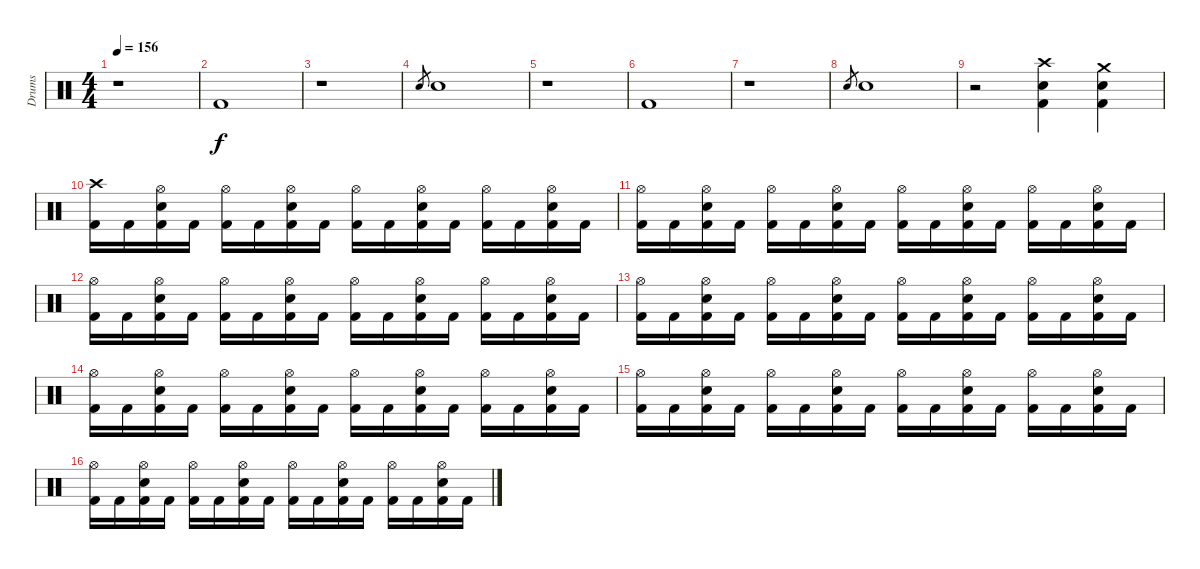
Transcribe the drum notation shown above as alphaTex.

\track ("Drums" "Drums") {instrument percussion}
\staff {score}
\articulation defaults
\ts (4 4)
\tempo 156
\clef neutral
\ks c
r.1{dy f} |
"Kick (hit) 2".1 |
r.1 |
"Snare (hit) 2".8{gr} "Snare (hit) 2".1 |
r.1 |
"Kick (hit) 2".1 |
r.1 |
"Snare (hit) 2".8{gr} "Snare (hit) 2".1 |
r.2 ("Kick (hit) 2" "Snare (hit) 2" "Crash high (hit)").4 ("Kick (hit) 2" "Snare (hit) 2" "Crash medium (hit)").4 |
\section ("" "")
("Kick (hit) 2" "Crash high (hit)").16 "Kick (hit) 2".16 ("Kick (hit) 2" "Snare (hit) 2" "Hi-Hat (open)").16 "Kick (hit) 2".16 ("Kick (hit) 2" "Hi-Hat (open)").16 "Kick (hit) 2".16 ("Kick (hit) 2" "Snare (hit) 2" "Hi-Hat (open)").16 "Kick (hit) 2".16 ("Kick (hit) 2" "Hi-Hat (open)").16 "Kick (hit) 2".16 ("Kick (hit) 2" "Snare (hit) 2" "Hi-Hat (open)").16 "Kick (hit) 2".16 ("Kick (hit) 2" "Hi-Hat (open)").16 "Kick (hit) 2".16 ("Kick (hit) 2" "Snare (hit) 2" "Hi-Hat (open)").16 "Kick (hit) 2".16 |
("Kick (hit) 2" "Hi-Hat (open)").16 "Kick (hit) 2".16 ("Kick (hit) 2" "Snare (hit) 2" "Hi-Hat (open)").16 "Kick (hit) 2".16 ("Kick (hit) 2" "Hi-Hat (open)").16 "Kick (hit) 2".16 ("Kick (hit) 2" "Snare (hit) 2" "Hi-Hat (open)").16 "Kick (hit) 2".16 ("Kick (hit) 2" "Hi-Hat (open)").16 "Kick (hit) 2".16 ("Kick (hit) 2" "Snare (hit) 2" "Hi-Hat (open)").16 "Kick (hit) 2".16 ("Kick (hit) 2" "Hi-Hat (open)").16 "Kick (hit) 2".16 ("Kick (hit) 2" "Snare (hit) 2" "Hi-Hat (open)").16 "Kick (hit) 2".16 |
("Kick (hit) 2" "Hi-Hat (open)").16 "Kick (hit) 2".16 ("Kick (hit) 2" "Snare (hit) 2" "Hi-Hat (open)").16 "Kick (hit) 2".16 ("Kick (hit) 2" "Hi-Hat (open)").16 "Kick (hit) 2".16 ("Kick (hit) 2" "Snare (hit) 2" "Hi-Hat (open)").16 "Kick (hit) 2".16 ("Kick (hit) 2" "Hi-Hat (open)").16 "Kick (hit) 2".16 ("Kick (hit) 2" "Snare (hit) 2" "Hi-Hat (open)").16 "Kick (hit) 2".16 ("Kick (hit) 2" "Hi-Hat (open)").16 "Kick (hit) 2".16 ("Kick (hit) 2" "Snare (hit) 2" "Hi-Hat (open)").16 "Kick (hit) 2".16 |
("Kick (hit) 2" "Hi-Hat (open)").16 "Kick (hit) 2".16 ("Kick (hit) 2" "Snare (hit) 2" "Hi-Hat (open)").16 "Kick (hit) 2".16 ("Kick (hit) 2" "Hi-Hat (open)").16 "Kick (hit) 2".16 ("Kick (hit) 2" "Snare (hit) 2" "Hi-Hat (open)").16 "Kick (hit) 2".16 ("Kick (hit) 2" "Hi-Hat (open)").16 "Kick (hit) 2".16 ("Kick (hit) 2" "Snare (hit) 2" "Hi-Hat (open)").16 "Kick (hit) 2".16 ("Kick (hit) 2" "Hi-Hat (open)").16 "Kick (hit) 2".16 ("Kick (hit) 2" "Snare (hit) 2" "Hi-Hat (open)").16 "Kick (hit) 2".16 |
("Kick (hit) 2" "Hi-Hat (open)").16 "Kick (hit) 2".16 ("Kick (hit) 2" "Snare (hit) 2" "Hi-Hat (open)").16 "Kick (hit) 2".16 ("Kick (hit) 2" "Hi-Hat (open)").16 "Kick (hit) 2".16 ("Kick (hit) 2" "Snare (hit) 2" "Hi-Hat (open)").16 "Kick (hit) 2".16 ("Kick (hit) 2" "Hi-Hat (open)").16 "Kick (hit) 2".16 ("Kick (hit) 2" "Snare (hit) 2" "Hi-Hat (open)").16 "Kick (hit) 2".16 ("Kick (hit) 2" "Hi-Hat (open)").16 "Kick (hit) 2".16 ("Kick (hit) 2" "Snare (hit) 2" "Hi-Hat (open)").16 "Kick (hit) 2".16 |
("Kick (hit) 2" "Hi-Hat (open)").16 "Kick (hit) 2".16 ("Kick (hit) 2" "Snare (hit) 2" "Hi-Hat (open)").16 "Kick (hit) 2".16 ("Kick (hit) 2" "Hi-Hat (open)").16 "Kick (hit) 2".16 ("Kick (hit) 2" "Snare (hit) 2" "Hi-Hat (open)").16 "Kick (hit) 2".16 ("Kick (hit) 2" "Hi-Hat (open)").16 "Kick (hit) 2".16 ("Kick (hit) 2" "Snare (hit) 2" "Hi-Hat (open)").16 "Kick (hit) 2".16 ("Kick (hit) 2" "Hi-Hat (open)").16 "Kick (hit) 2".16 ("Kick (hit) 2" "Snare (hit) 2" "Hi-Hat (open)").16 "Kick (hit) 2".16 |
("Kick (hit) 2" "Hi-Hat (open)").16 "Kick (hit) 2".16 ("Kick (hit) 2" "Snare (hit) 2" "Hi-Hat (open)").16 "Kick (hit) 2".16 ("Kick (hit) 2" "Hi-Hat (open)").16 "Kick (hit) 2".16 ("Kick (hit) 2" "Snare (hit) 2" "Hi-Hat (open)").16 "Kick (hit) 2".16 ("Kick (hit) 2" "Hi-Hat (open)").16 "Kick (hit) 2".16 ("Kick (hit) 2" "Snare (hit) 2" "Hi-Hat (open)").16 "Kick (hit) 2".16 ("Kick (hit) 2" "Hi-Hat (open)").16 "Kick (hit) 2".16 ("Kick (hit) 2" "Snare (hit) 2" "Hi-Hat (open)").16 "Kick (hit) 2".16
